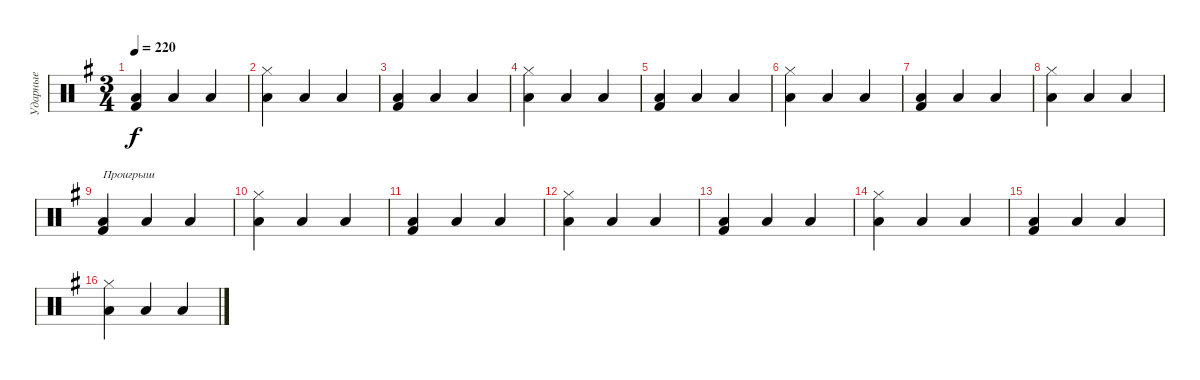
\track ("Ударные" "Ударные") {instrument percussion}
\staff {score}
\articulation defaults
\ts (3 4)
\tempo 220
\clef neutral
\ks eminor
("Kick (hit) 2" "Low Tom (hit)").4{dy f} "Low Tom (hit)".4 "Low Tom (hit)".4 |
("Hi-Hat (closed)" "Low Tom (hit)").4 "Low Tom (hit)".4 "Low Tom (hit)".4 |
("Kick (hit) 2" "Low Tom (hit)").4 "Low Tom (hit)".4 "Low Tom (hit)".4 |
("Hi-Hat (closed)" "Low Tom (hit)").4 "Low Tom (hit)".4 "Low Tom (hit)".4 |
("Kick (hit) 2" "Low Tom (hit)").4 "Low Tom (hit)".4 "Low Tom (hit)".4 |
("Hi-Hat (closed)" "Low Tom (hit)").4 "Low Tom (hit)".4 "Low Tom (hit)".4 |
("Kick (hit) 2" "Low Tom (hit)").4 "Low Tom (hit)".4 "Low Tom (hit)".4 |
("Hi-Hat (closed)" "Low Tom (hit)").4 "Low Tom (hit)".4 "Low Tom (hit)".4 |
("Kick (hit) 2" "Low Tom (hit)").4{txt "Проигрыш"} "Low Tom (hit)".4 "Low Tom (hit)".4 |
("Hi-Hat (closed)" "Low Tom (hit)").4 "Low Tom (hit)".4 "Low Tom (hit)".4 |
("Kick (hit) 2" "Low Tom (hit)").4 "Low Tom (hit)".4 "Low Tom (hit)".4 |
("Hi-Hat (closed)" "Low Tom (hit)").4 "Low Tom (hit)".4 "Low Tom (hit)".4 |
("Kick (hit) 2" "Low Tom (hit)").4 "Low Tom (hit)".4 "Low Tom (hit)".4 |
("Hi-Hat (closed)" "Low Tom (hit)").4 "Low Tom (hit)".4 "Low Tom (hit)".4 |
("Kick (hit) 2" "Low Tom (hit)").4 "Low Tom (hit)".4 "Low Tom (hit)".4 |
("Hi-Hat (closed)" "Low Tom (hit)").4 "Low Tom (hit)".4 "Low Tom (hit)".4
